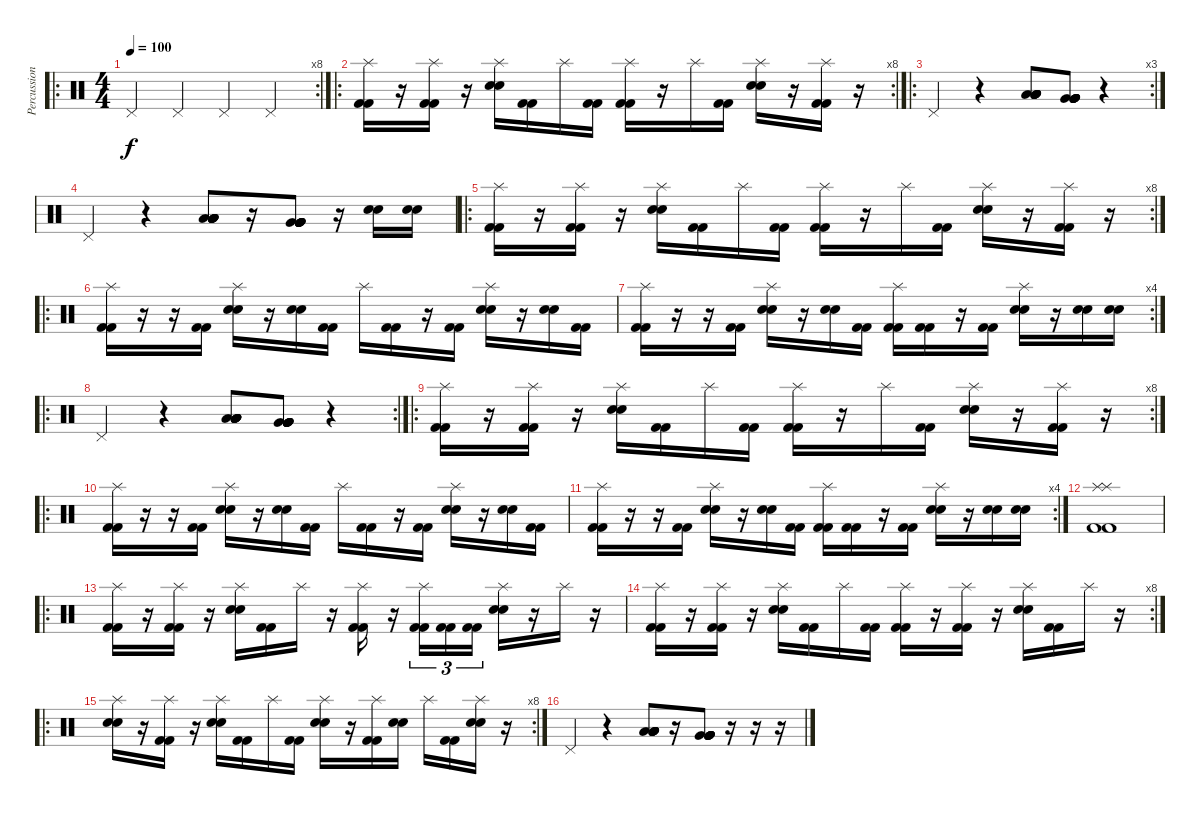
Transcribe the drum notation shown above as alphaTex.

\track ("Percussions" "Percussion") {instrument percussion}
\staff {score}
\articulation defaults
\ro
\rc 8
\ts (4 4)
\tempo 100
\clef neutral
\ks c "Pedal Hi-Hat (hit)".4{dy f} "Pedal Hi-Hat (hit)".4 "Pedal Hi-Hat (hit)".4 "Pedal Hi-Hat (hit)".4
|
\ro
\rc 8
("Splash (hit)" "Kick (hit) 2" "Kick (hit) 2").16 r.16 ("Splash (hit)" "Kick (hit) 2" "Kick (hit) 2").16 r.16 ("Splash (hit)" "Electric Snare (hit)" "Electric Snare (hit)").16 ("Kick (hit) 2" "Kick (hit) 2").16 "Splash (hit)".16 ("Kick (hit) 2" "Kick (hit) 2").16 ("Splash (hit)" "Kick (hit) 2" "Kick (hit) 2").16 r.16 "Splash (hit)".16 ("Kick (hit) 2" "Kick (hit) 2").16 ("Splash (hit)" "Electric Snare (hit)" "Electric Snare (hit)").16 r.16 ("Splash (hit)" "Kick (hit) 2" "Kick (hit) 2").16 r.16 |
\ro
\rc 3 "Pedal Hi-Hat (hit)".4
r.4 ("Low Tom (hit)" "Low Tom (hit)" "Low Tom (hit)" "Low Tom (hit)" "Low Tom (hit)" "Low Tom (hit)").8 ("Very Low Tom (hit)" "Very Low Tom (hit)" "Very Low Tom (hit)" "Very Low Tom (hit)" "Very Low Tom (hit)" "Very Low Tom (hit)").8 r.4 |
"Pedal Hi-Hat (hit)".4 r.4 ("Low Tom (hit)" "Low Tom (hit)" "Low Tom (hit)" "Low Tom (hit)" "Low Tom (hit)" "Low Tom (hit)").8 r.16 ("Very Low Tom (hit)" "Very Low Tom (hit)" "Very Low Tom (hit)" "Very Low Tom (hit)" "Very Low Tom (hit)" "Very Low Tom (hit)").8 r.16 ("Electric Snare (hit)" "Electric Snare (hit)").16 ("Electric Snare (hit)" "Electric Snare (hit)").16 |
\ro
\rc 8
("Splash (hit)" "Kick (hit) 2" "Kick (hit) 2").16 r.16 ("Splash (hit)" "Kick (hit) 2" "Kick (hit) 2").16 r.16 ("Splash (hit)" "Electric Snare (hit)" "Electric Snare (hit)").16 ("Kick (hit) 2" "Kick (hit) 2").16 "Splash (hit)".16 ("Kick (hit) 2" "Kick (hit) 2").16 ("Splash (hit)" "Kick (hit) 2" "Kick (hit) 2").16 r.16 "Splash (hit)".16 ("Kick (hit) 2" "Kick (hit) 2").16 ("Splash (hit)" "Electric Snare (hit)" "Electric Snare (hit)").16 r.16 ("Splash (hit)" "Kick (hit) 2" "Kick (hit) 2").16 r.16 |
\ro
("Splash (hit)" "Kick (hit) 2" "Kick (hit) 2").16 r.16 r.16 ("Kick (hit) 2" "Kick (hit) 2").16 ("Splash (hit)" "Electric Snare (hit)" "Electric Snare (hit)").16 r.16 ("Electric Snare (hit)" "Electric Snare (hit)").16 ("Kick (hit) 2" "Kick (hit) 2").16 "Splash (hit)".16 ("Kick (hit) 2" "Kick (hit) 2").16 r.16 ("Kick (hit) 2" "Kick (hit) 2").16 ("Splash (hit)" "Electric Snare (hit)" "Electric Snare (hit)").16 r.16 ("Electric Snare (hit)" "Electric Snare (hit)").16 ("Kick (hit) 2" "Kick (hit) 2").16 |
\rc 4
("Splash (hit)" "Kick (hit) 2" "Kick (hit) 2").16 r.16 r.16 ("Kick (hit) 2" "Kick (hit) 2").16 ("Splash (hit)" "Electric Snare (hit)" "Electric Snare (hit)").16 r.16 ("Electric Snare (hit)" "Electric Snare (hit)").16 ("Kick (hit) 2" "Kick (hit) 2").16 ("Splash (hit)" "Kick (hit) 2" "Kick (hit) 2").16 ("Kick (hit) 2" "Kick (hit) 2").16 r.16 ("Kick (hit) 2" "Kick (hit) 2").16 ("Splash (hit)" "Electric Snare (hit)" "Electric Snare (hit)").16 r.16 ("Electric Snare (hit)" "Electric Snare (hit)").16 ("Electric Snare (hit)" "Electric Snare (hit)").16 |
\ro
\rc 2 "Pedal Hi-Hat (hit)".4
r.4 ("Low Tom (hit)" "Low Tom (hit)" "Low Tom (hit)" "Low Tom (hit)" "Low Tom (hit)" "Low Tom (hit)").8 ("Very Low Tom (hit)" "Very Low Tom (hit)" "Very Low Tom (hit)" "Very Low Tom (hit)" "Very Low Tom (hit)" "Very Low Tom (hit)").8 r.4 |
\ro
\rc 8
("Splash (hit)" "Kick (hit) 2" "Kick (hit) 2").16 r.16 ("Splash (hit)" "Kick (hit) 2" "Kick (hit) 2").16 r.16 ("Splash (hit)" "Electric Snare (hit)" "Electric Snare (hit)").16 ("Kick (hit) 2" "Kick (hit) 2").16 "Splash (hit)".16 ("Kick (hit) 2" "Kick (hit) 2").16 ("Splash (hit)" "Kick (hit) 2" "Kick (hit) 2").16 r.16 "Splash (hit)".16 ("Kick (hit) 2" "Kick (hit) 2").16 ("Splash (hit)" "Electric Snare (hit)" "Electric Snare (hit)").16 r.16 ("Splash (hit)" "Kick (hit) 2" "Kick (hit) 2").16 r.16 |
\ro
("Splash (hit)" "Kick (hit) 2" "Kick (hit) 2").16 r.16 r.16 ("Kick (hit) 2" "Kick (hit) 2").16 ("Splash (hit)" "Electric Snare (hit)" "Electric Snare (hit)").16 r.16 ("Electric Snare (hit)" "Electric Snare (hit)").16 ("Kick (hit) 2" "Kick (hit) 2").16 "Splash (hit)".16 ("Kick (hit) 2" "Kick (hit) 2").16 r.16 ("Kick (hit) 2" "Kick (hit) 2").16 ("Splash (hit)" "Electric Snare (hit)" "Electric Snare (hit)").16 r.16 ("Electric Snare (hit)" "Electric Snare (hit)").16 ("Kick (hit) 2" "Kick (hit) 2").16 |
\rc 4
("Splash (hit)" "Kick (hit) 2" "Kick (hit) 2").16 r.16 r.16 ("Kick (hit) 2" "Kick (hit) 2").16 ("Splash (hit)" "Electric Snare (hit)" "Electric Snare (hit)").16 r.16 ("Electric Snare (hit)" "Electric Snare (hit)").16 ("Kick (hit) 2" "Kick (hit) 2").16 ("Splash (hit)" "Kick (hit) 2" "Kick (hit) 2").16 ("Kick (hit) 2" "Kick (hit) 2").16 r.16 ("Kick (hit) 2" "Kick (hit) 2").16 ("Splash (hit)" "Electric Snare (hit)" "Electric Snare (hit)").16 r.16 ("Electric Snare (hit)" "Electric Snare (hit)").16 ("Electric Snare (hit)" "Electric Snare (hit)").16 |
("Splash (hit)" "Splash (hit)" "Kick (hit) 2" "Kick (hit) 2").1 |
\ro
("Splash (hit)" "Kick (hit) 2" "Kick (hit) 2").16 r.16 ("Splash (hit)" "Kick (hit) 2" "Kick (hit) 2").16 r.16 ("Splash (hit)" "Electric Snare (hit)" "Electric Snare (hit)").16 ("Kick (hit) 2" "Kick (hit) 2").16 "Splash (hit)".16 r.16 ("Splash (hit)" "Kick (hit) 2" "Kick (hit) 2").16 r.16 ("Splash (hit)" "Kick (hit) 2" "Kick (hit) 2").16{tu (3 2)} ("Kick (hit) 2" "Kick (hit) 2").16{tu (3 2)} ("Kick (hit) 2" "Kick (hit) 2").16{tu (3 2)} ("Splash (hit)" "Electric Snare (hit)" "Electric Snare (hit)").16 r.16 "Splash (hit)".16 r.16 |
\rc 8
("Splash (hit)" "Kick (hit) 2" "Kick (hit) 2").16 r.16 ("Splash (hit)" "Kick (hit) 2" "Kick (hit) 2").16 r.16 ("Splash (hit)" "Electric Snare (hit)" "Electric Snare (hit)").16 ("Kick (hit) 2" "Kick (hit) 2").16 "Splash (hit)".16 ("Kick (hit) 2" "Kick (hit) 2").16 ("Splash (hit)" "Kick (hit) 2" "Kick (hit) 2").16 r.16 ("Splash (hit)" "Kick (hit) 2" "Kick (hit) 2").16 r.16 ("Splash (hit)" "Electric Snare (hit)" "Electric Snare (hit)").16 ("Kick (hit) 2" "Kick (hit) 2").16 "Splash (hit)".16 r.16 |
\ro
\rc 8
("Splash (hit)" "Electric Snare (hit)" "Electric Snare (hit)").16 r.16 ("Splash (hit)" "Kick (hit) 2" "Kick (hit) 2").16 r.16 ("Splash (hit)" "Electric Snare (hit)" "Electric Snare (hit)").16 ("Kick (hit) 2" "Kick (hit) 2").16 "Splash (hit)".16 ("Kick (hit) 2" "Kick (hit) 2").16 ("Splash (hit)" "Electric Snare (hit)" "Electric Snare (hit)").16 r.16 ("Splash (hit)" "Kick (hit) 2" "Kick (hit) 2").16 ("Electric Snare (hit)" "Electric Snare (hit)").16 "Splash (hit)".16 ("Kick (hit) 2" "Kick (hit) 2").16 ("Splash (hit)" "Electric Snare (hit)" "Electric Snare (hit)").16 r.16 |
"Pedal Hi-Hat (hit)".4 r.4 ("Low Tom (hit)" "Low Tom (hit)" "Low Tom (hit)" "Low Tom (hit)" "Low Tom (hit)" "Low Tom (hit)").8 r.16 ("Very Low Tom (hit)" "Very Low Tom (hit)" "Very Low Tom (hit)" "Very Low Tom (hit)" "Very Low Tom (hit)" "Very Low Tom (hit)").8 r.16 r.16 r.16
